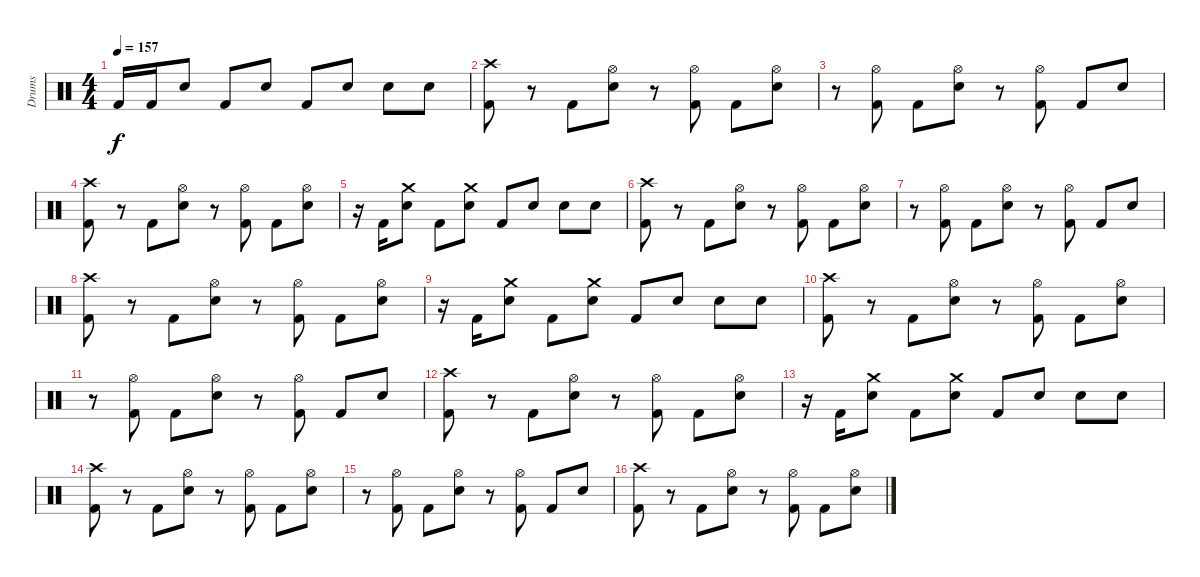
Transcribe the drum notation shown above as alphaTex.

\track ("Drums" "Drums") {instrument percussion}
\staff {score}
\articulation defaults
\ts (4 4)
\tempo 157
\clef neutral
\ks c "Kick (hit) 2".16{dy f} "Kick (hit) 2".16 "Electric Snare (hit)".8 "Kick (hit) 2".8 "Electric Snare (hit)".8 "Kick (hit) 2".8 "Electric Snare (hit)".8 "Electric Snare (hit)".8 "Electric Snare (hit)".8
|
("Crash high (hit)" "Kick (hit) 2").8 r.8 "Kick (hit) 2".8 ("Hi-Hat (open)" "Electric Snare (hit)").8 r.8 ("Hi-Hat (open)" "Kick (hit) 2").8 "Kick (hit) 2".8 ("Hi-Hat (open)" "Electric Snare (hit)").8 |
r.8 ("Hi-Hat (open)" "Kick (hit) 2").8 "Kick (hit) 2".8 ("Hi-Hat (open)" "Electric Snare (hit)").8 r.8 ("Hi-Hat (open)" "Kick (hit) 2").8 "Kick (hit) 2".8 "Electric Snare (hit)".8 |
("Crash high (hit)" "Kick (hit) 2").8 r.8 "Kick (hit) 2".8 ("Hi-Hat (open)" "Electric Snare (hit)").8 r.8 ("Hi-Hat (open)" "Kick (hit) 2").8 "Kick (hit) 2".8 ("Hi-Hat (open)" "Electric Snare (hit)").8 |
r.16 "Kick (hit) 2".16 ("Crash medium (hit)" "Electric Snare (hit)").8 "Kick (hit) 2".8 ("Crash medium (hit)" "Electric Snare (hit)").8 "Kick (hit) 2".8 "Electric Snare (hit)".8 "Electric Snare (hit)".8 "Electric Snare (hit)".8 |
("Crash high (hit)" "Kick (hit) 2").8 r.8 "Kick (hit) 2".8 ("Hi-Hat (open)" "Electric Snare (hit)").8 r.8 ("Hi-Hat (open)" "Kick (hit) 2").8 "Kick (hit) 2".8 ("Hi-Hat (open)" "Electric Snare (hit)").8 |
r.8 ("Hi-Hat (open)" "Kick (hit) 2").8 "Kick (hit) 2".8 ("Hi-Hat (open)" "Electric Snare (hit)").8 r.8 ("Hi-Hat (open)" "Kick (hit) 2").8 "Kick (hit) 2".8 "Electric Snare (hit)".8 |
("Crash high (hit)" "Kick (hit) 2").8 r.8 "Kick (hit) 2".8 ("Hi-Hat (open)" "Electric Snare (hit)").8 r.8 ("Hi-Hat (open)" "Kick (hit) 2").8 "Kick (hit) 2".8 ("Hi-Hat (open)" "Electric Snare (hit)").8 |
r.16 "Kick (hit) 2".16 ("Crash medium (hit)" "Electric Snare (hit)").8 "Kick (hit) 2".8 ("Crash medium (hit)" "Electric Snare (hit)").8 "Kick (hit) 2".8 "Electric Snare (hit)".8 "Electric Snare (hit)".8 "Electric Snare (hit)".8 |
("Crash high (hit)" "Kick (hit) 2").8 r.8 "Kick (hit) 2".8 ("Hi-Hat (open)" "Electric Snare (hit)").8 r.8 ("Hi-Hat (open)" "Kick (hit) 2").8 "Kick (hit) 2".8 ("Hi-Hat (open)" "Electric Snare (hit)").8 |
r.8 ("Hi-Hat (open)" "Kick (hit) 2").8 "Kick (hit) 2".8 ("Hi-Hat (open)" "Electric Snare (hit)").8 r.8 ("Hi-Hat (open)" "Kick (hit) 2").8 "Kick (hit) 2".8 "Electric Snare (hit)".8 |
("Crash high (hit)" "Kick (hit) 2").8 r.8 "Kick (hit) 2".8 ("Hi-Hat (open)" "Electric Snare (hit)").8 r.8 ("Hi-Hat (open)" "Kick (hit) 2").8 "Kick (hit) 2".8 ("Hi-Hat (open)" "Electric Snare (hit)").8 |
r.16 "Kick (hit) 2".16 ("Crash medium (hit)" "Electric Snare (hit)").8 "Kick (hit) 2".8 ("Crash medium (hit)" "Electric Snare (hit)").8 "Kick (hit) 2".8 "Electric Snare (hit)".8 "Electric Snare (hit)".8 "Electric Snare (hit)".8 |
("Crash high (hit)" "Kick (hit) 2").8 r.8 "Kick (hit) 2".8 ("Hi-Hat (open)" "Electric Snare (hit)").8 r.8 ("Hi-Hat (open)" "Kick (hit) 2").8 "Kick (hit) 2".8 ("Hi-Hat (open)" "Electric Snare (hit)").8 |
r.8 ("Hi-Hat (open)" "Kick (hit) 2").8 "Kick (hit) 2".8 ("Hi-Hat (open)" "Electric Snare (hit)").8 r.8 ("Hi-Hat (open)" "Kick (hit) 2").8 "Kick (hit) 2".8 "Electric Snare (hit)".8 |
("Crash high (hit)" "Kick (hit) 2").8 r.8 "Kick (hit) 2".8 ("Hi-Hat (open)" "Electric Snare (hit)").8 r.8 ("Hi-Hat (open)" "Kick (hit) 2").8 "Kick (hit) 2".8 ("Hi-Hat (open)" "Electric Snare (hit)").8
